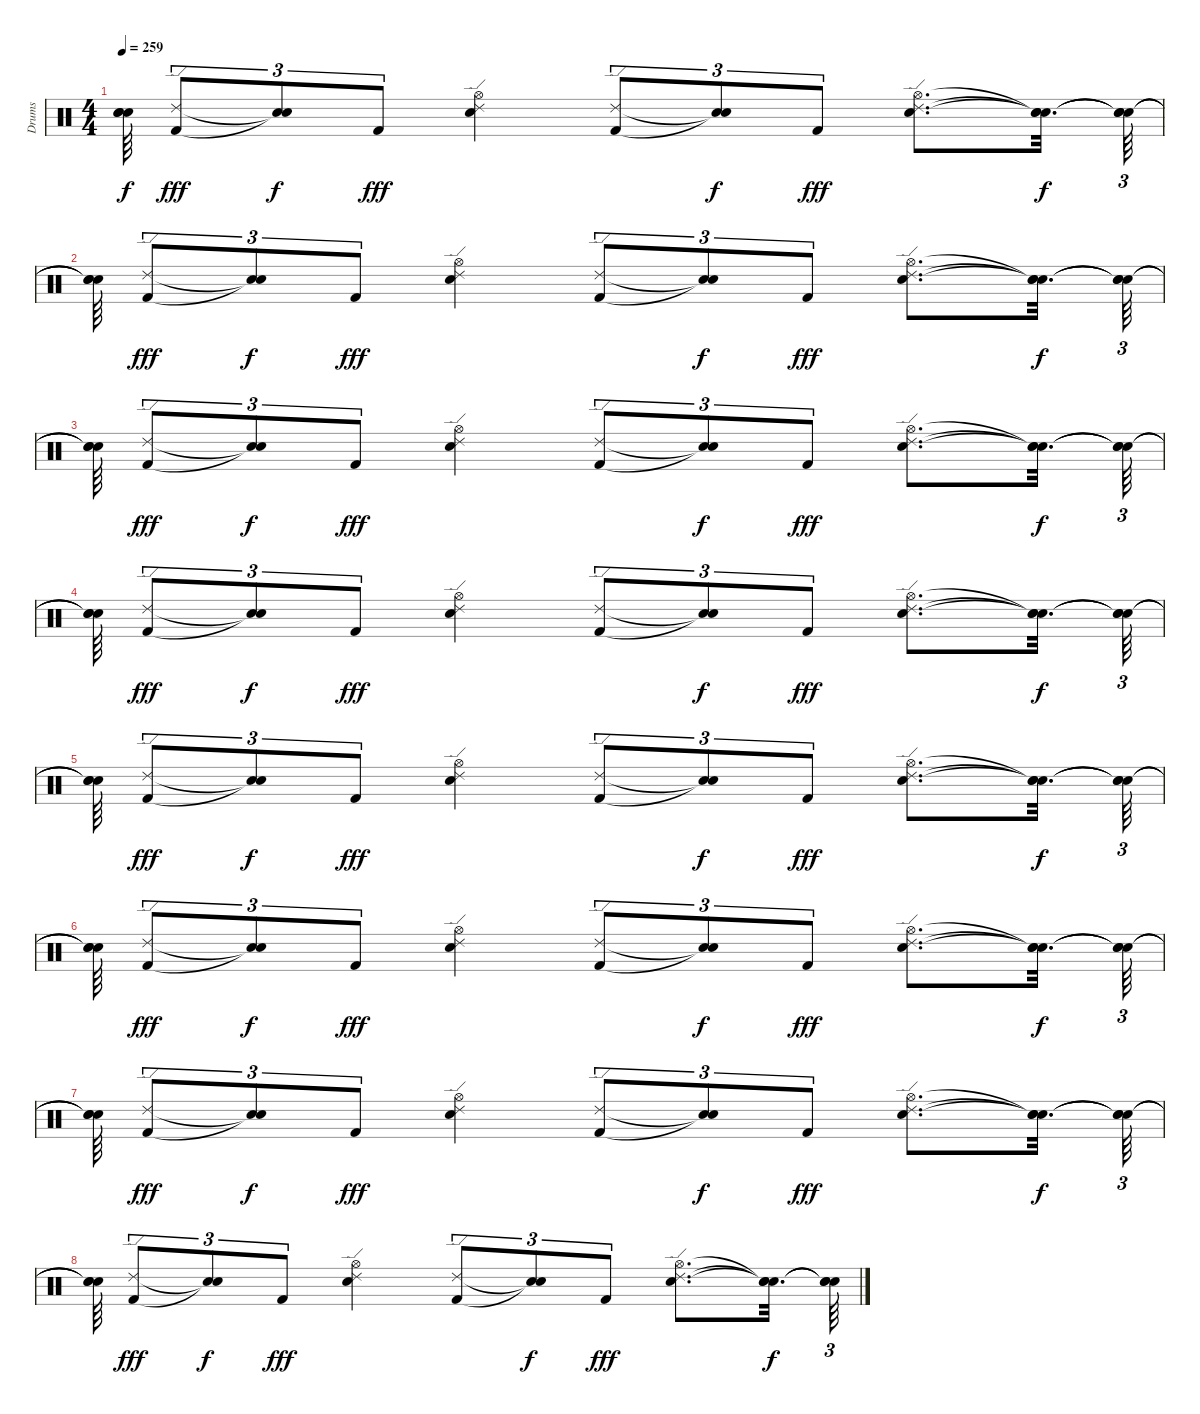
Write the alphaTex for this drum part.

\track ("Drums" "Drums") {instrument percussion}
\staff {score}
\articulation defaults
\ts (4 4)
\tempo 259
\clef neutral
\ks c
("Snare (hit)"{t} "Snare (hit)"{t} "Snare (hit)"{t}).64{dy f} ("Kick (hit) 2" "Ride (edge) 2").8{tu (3 2) dy fff} ("Snare (hit)"{t} "Snare (hit)"{t}).8{tu (3 2) dy f} "Kick (hit) 2".8{tu (3 2) dy fff} ("Electric Snare (hit)" "Ride (edge) 2" "Hi-Hat (open)").4 ("Kick (hit) 2" "Ride (edge) 2").8{tu (3 2)} ("Snare (hit)"{t} "Snare (hit)"{t}).8{tu (3 2) dy f} "Kick (hit) 2".8{tu (3 2) dy fff} ("Electric Snare (hit)" "Ride (edge) 2" "Hi-Hat (open)").8{d} ("Snare (hit)"{t} "Snare (hit)"{t} "Snare (hit)"{t}).32{d dy f} ("Snare (hit)"{t} "Snare (hit)"{t} "Snare (hit)"{t}).64{tu (3 2)} |
("Snare (hit)"{t} "Snare (hit)"{t} "Snare (hit)"{t}).64 ("Kick (hit) 2" "Ride (edge) 2").8{tu (3 2) dy fff} ("Snare (hit)"{t} "Snare (hit)"{t}).8{tu (3 2) dy f} "Kick (hit) 2".8{tu (3 2) dy fff} ("Electric Snare (hit)" "Ride (edge) 2" "Hi-Hat (open)").4 ("Kick (hit) 2" "Ride (edge) 2").8{tu (3 2)} ("Snare (hit)"{t} "Snare (hit)"{t}).8{tu (3 2) dy f} "Kick (hit) 2".8{tu (3 2) dy fff} ("Electric Snare (hit)" "Ride (edge) 2" "Hi-Hat (open)").8{d} ("Snare (hit)"{t} "Snare (hit)"{t} "Snare (hit)"{t}).32{d dy f} ("Snare (hit)"{t} "Snare (hit)"{t} "Snare (hit)"{t}).64{tu (3 2)} |
("Snare (hit)"{t} "Snare (hit)"{t} "Snare (hit)"{t}).64 ("Kick (hit) 2" "Ride (edge) 2").8{tu (3 2) dy fff} ("Snare (hit)"{t} "Snare (hit)"{t}).8{tu (3 2) dy f} "Kick (hit) 2".8{tu (3 2) dy fff} ("Electric Snare (hit)" "Ride (edge) 2" "Hi-Hat (open)").4 ("Kick (hit) 2" "Ride (edge) 2").8{tu (3 2)} ("Snare (hit)"{t} "Snare (hit)"{t}).8{tu (3 2) dy f} "Kick (hit) 2".8{tu (3 2) dy fff} ("Electric Snare (hit)" "Ride (edge) 2" "Hi-Hat (open)").8{d} ("Snare (hit)"{t} "Snare (hit)"{t} "Snare (hit)"{t}).32{d dy f} ("Snare (hit)"{t} "Snare (hit)"{t} "Snare (hit)"{t}).64{tu (3 2)} |
("Snare (hit)"{t} "Snare (hit)"{t} "Snare (hit)"{t}).64 ("Kick (hit) 2" "Ride (edge) 2").8{tu (3 2) dy fff} ("Snare (hit)"{t} "Snare (hit)"{t}).8{tu (3 2) dy f} "Kick (hit) 2".8{tu (3 2) dy fff} ("Electric Snare (hit)" "Ride (edge) 2" "Hi-Hat (open)").4 ("Kick (hit) 2" "Ride (edge) 2").8{tu (3 2)} ("Snare (hit)"{t} "Snare (hit)"{t}).8{tu (3 2) dy f} "Kick (hit) 2".8{tu (3 2) dy fff} ("Electric Snare (hit)" "Ride (edge) 2" "Hi-Hat (open)").8{d} ("Snare (hit)"{t} "Snare (hit)"{t} "Snare (hit)"{t}).32{d dy f} ("Snare (hit)"{t} "Snare (hit)"{t} "Snare (hit)"{t}).64{tu (3 2)} |
("Snare (hit)"{t} "Snare (hit)"{t} "Snare (hit)"{t}).64 ("Kick (hit) 2" "Ride (edge) 2").8{tu (3 2) dy fff} ("Snare (hit)"{t} "Snare (hit)"{t}).8{tu (3 2) dy f} "Kick (hit) 2".8{tu (3 2) dy fff} ("Electric Snare (hit)" "Ride (edge) 2" "Hi-Hat (open)").4 ("Kick (hit) 2" "Ride (edge) 2").8{tu (3 2)} ("Snare (hit)"{t} "Snare (hit)"{t}).8{tu (3 2) dy f} "Kick (hit) 2".8{tu (3 2) dy fff} ("Electric Snare (hit)" "Ride (edge) 2" "Hi-Hat (open)").8{d} ("Snare (hit)"{t} "Snare (hit)"{t} "Snare (hit)"{t}).32{d dy f} ("Snare (hit)"{t} "Snare (hit)"{t} "Snare (hit)"{t}).64{tu (3 2)} |
("Snare (hit)"{t} "Snare (hit)"{t} "Snare (hit)"{t}).64 ("Kick (hit) 2" "Ride (edge) 2").8{tu (3 2) dy fff} ("Snare (hit)"{t} "Snare (hit)"{t}).8{tu (3 2) dy f} "Kick (hit) 2".8{tu (3 2) dy fff} ("Electric Snare (hit)" "Ride (edge) 2" "Hi-Hat (open)").4 ("Kick (hit) 2" "Ride (edge) 2").8{tu (3 2)} ("Snare (hit)"{t} "Snare (hit)"{t}).8{tu (3 2) dy f} "Kick (hit) 2".8{tu (3 2) dy fff} ("Electric Snare (hit)" "Ride (edge) 2" "Hi-Hat (open)").8{d} ("Snare (hit)"{t} "Snare (hit)"{t} "Snare (hit)"{t}).32{d dy f} ("Snare (hit)"{t} "Snare (hit)"{t} "Snare (hit)"{t}).64{tu (3 2)} |
("Snare (hit)"{t} "Snare (hit)"{t} "Snare (hit)"{t}).64 ("Kick (hit) 2" "Ride (edge) 2").8{tu (3 2) dy fff} ("Snare (hit)"{t} "Snare (hit)"{t}).8{tu (3 2) dy f} "Kick (hit) 2".8{tu (3 2) dy fff} ("Electric Snare (hit)" "Ride (edge) 2" "Hi-Hat (open)").4 ("Kick (hit) 2" "Ride (edge) 2").8{tu (3 2)} ("Snare (hit)"{t} "Snare (hit)"{t}).8{tu (3 2) dy f} "Kick (hit) 2".8{tu (3 2) dy fff} ("Electric Snare (hit)" "Ride (edge) 2" "Hi-Hat (open)").8{d} ("Snare (hit)"{t} "Snare (hit)"{t} "Snare (hit)"{t}).32{d dy f} ("Snare (hit)"{t} "Snare (hit)"{t} "Snare (hit)"{t}).64{tu (3 2)} |
("Snare (hit)"{t} "Snare (hit)"{t} "Snare (hit)"{t}).64 ("Kick (hit) 2" "Ride (edge) 2").8{tu (3 2) dy fff} ("Snare (hit)"{t} "Snare (hit)"{t}).8{tu (3 2) dy f} "Kick (hit) 2".8{tu (3 2) dy fff} ("Electric Snare (hit)" "Ride (edge) 2" "Hi-Hat (open)").4 ("Kick (hit) 2" "Ride (edge) 2").8{tu (3 2)} ("Snare (hit)"{t} "Snare (hit)"{t}).8{tu (3 2) dy f} "Kick (hit) 2".8{tu (3 2) dy fff} ("Electric Snare (hit)" "Ride (edge) 2" "Hi-Hat (open)").8{d} ("Snare (hit)"{t} "Snare (hit)"{t} "Snare (hit)"{t}).32{d dy f} ("Snare (hit)"{t} "Snare (hit)"{t} "Snare (hit)"{t}).64{tu (3 2)}
